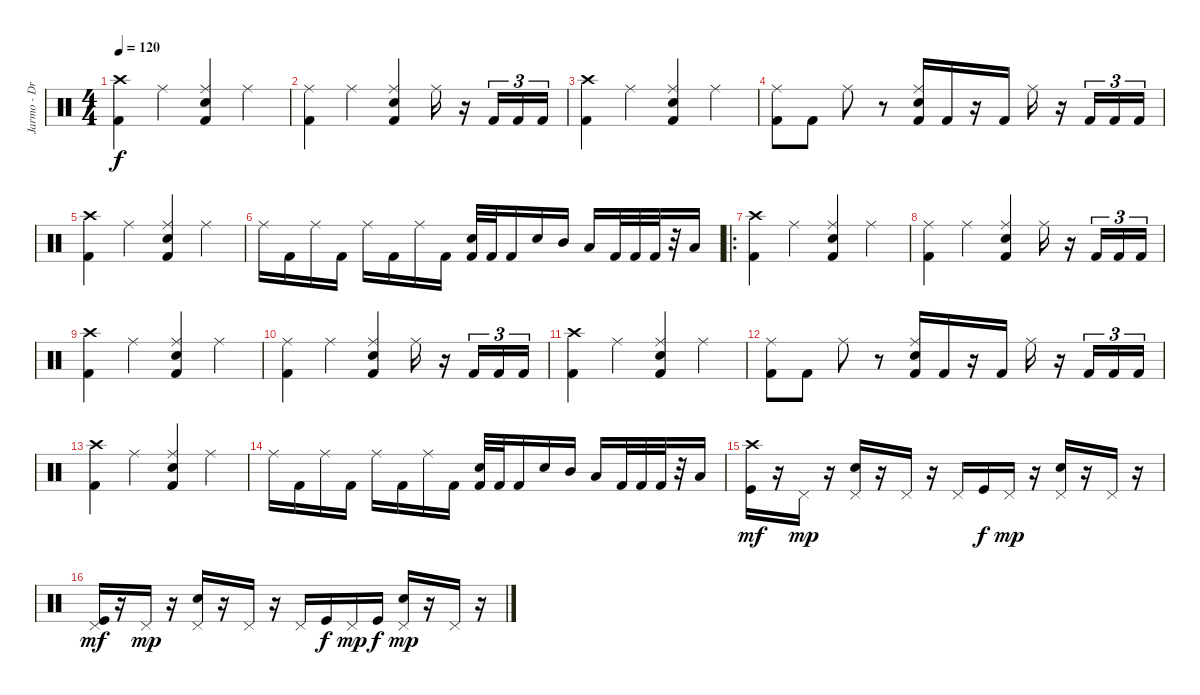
\track ("Jarmo - Drums" "Jarmo - Dr") {instrument percussion}
\staff {score}
\articulation defaults
\ts (4 4)
\tempo 120
\clef neutral
\ks c
("Kick (hit) 2" "Crash high (hit)").4{dy f} "Ride (middle)".4 ("Kick (hit) 2" "Electric Snare (hit)" "Ride (middle)").4 "Ride (middle)".4 |
("Kick (hit) 2" "Ride (middle)").4 "Ride (middle)".4 ("Kick (hit) 2" "Electric Snare (hit)" "Ride (middle)").4 "Ride (middle)".16 r.16 "Kick (hit) 2".16{tu (3 2)} "Kick (hit) 2".16{tu (3 2)} "Kick (hit) 2".16{tu (3 2)} |
("Kick (hit) 2" "Crash high (hit)").4 "Ride (middle)".4 ("Kick (hit) 2" "Electric Snare (hit)" "Ride (middle)").4 "Ride (middle)".4 |
("Kick (hit) 2" "Ride (middle)").8 "Kick (hit) 2".8 "Ride (middle)".8 r.8 ("Kick (hit) 2" "Electric Snare (hit)" "Ride (middle)").16 "Kick (hit) 2".16 r.16 "Kick (hit) 2".16 "Ride (middle)".16 r.16 "Kick (hit) 2".16{tu (3 2)} "Kick (hit) 2".16{tu (3 2)} "Kick (hit) 2".16{tu (3 2)} |
("Kick (hit) 2" "Crash high (hit)").4 "Ride (middle)".4 ("Kick (hit) 2" "Electric Snare (hit)" "Ride (middle)").4 "Ride (middle)".4 |
"Ride (middle)".16 "Kick (hit) 2".16 "Ride (middle)".16 "Kick (hit) 2".16 "Ride (middle)".16 "Kick (hit) 2".16 "Ride (middle)".16 "Kick (hit) 2".16 ("Kick (hit) 2" "Electric Snare (hit)").32 "Kick (hit) 2".32 "Kick (hit) 2".16 "Electric Snare (hit)".16 "Mid Tom (hit)".16 "Low Tom (hit)".16 "Kick (hit) 2".32 "Kick (hit) 2".32 "Kick (hit) 2".32 r.32 "Low Tom (hit)".16 |
\ro
("Kick (hit) 2" "Crash high (hit)").4 "Ride (middle)".4 ("Kick (hit) 2" "Electric Snare (hit)" "Ride (middle)").4 "Ride (middle)".4 |
("Kick (hit) 2" "Ride (middle)").4 "Ride (middle)".4 ("Kick (hit) 2" "Electric Snare (hit)" "Ride (middle)").4 "Ride (middle)".16 r.16 "Kick (hit) 2".16{tu (3 2)} "Kick (hit) 2".16{tu (3 2)} "Kick (hit) 2".16{tu (3 2)} |
("Kick (hit) 2" "Crash high (hit)").4 "Ride (middle)".4 ("Kick (hit) 2" "Electric Snare (hit)" "Ride (middle)").4 "Ride (middle)".4 |
("Kick (hit) 2" "Ride (middle)").4 "Ride (middle)".4 ("Kick (hit) 2" "Electric Snare (hit)" "Ride (middle)").4 "Ride (middle)".16 r.16 "Kick (hit) 2".16{tu (3 2)} "Kick (hit) 2".16{tu (3 2)} "Kick (hit) 2".16{tu (3 2)} |
("Kick (hit) 2" "Crash high (hit)").4 "Ride (middle)".4 ("Kick (hit) 2" "Electric Snare (hit)" "Ride (middle)").4 "Ride (middle)".4 |
("Kick (hit) 2" "Ride (middle)").8 "Kick (hit) 2".8 "Ride (middle)".8 r.8 ("Kick (hit) 2" "Electric Snare (hit)" "Ride (middle)").16 "Kick (hit) 2".16 r.16 "Kick (hit) 2".16 "Ride (middle)".16 r.16 "Kick (hit) 2".16{tu (3 2)} "Kick (hit) 2".16{tu (3 2)} "Kick (hit) 2".16{tu (3 2)} |
("Kick (hit) 2" "Crash high (hit)").4 "Ride (middle)".4 ("Kick (hit) 2" "Electric Snare (hit)" "Ride (middle)").4 "Ride (middle)".4 |
"Ride (middle)".16 "Kick (hit) 2".16 "Ride (middle)".16 "Kick (hit) 2".16 "Ride (middle)".16 "Kick (hit) 2".16 "Ride (middle)".16 "Kick (hit) 2".16 ("Kick (hit) 2" "Electric Snare (hit)").32 "Kick (hit) 2".32 "Kick (hit) 2".16 "Electric Snare (hit)".16 "Mid Tom (hit)".16 "Low Tom (hit)".16 "Kick (hit) 2".32 "Kick (hit) 2".32 "Kick (hit) 2".32 r.32 "Low Tom (hit)".16 |
("Kick (hit)" "Crash high (hit)").16{dy mf} r.16 "Pedal Hi-Hat (hit)".16{dy mp} r.16 ("Electric Snare (hit)" "Pedal Hi-Hat (hit)").16 r.16 "Pedal Hi-Hat (hit)".16 r.16 "Pedal Hi-Hat (hit)".16 "Kick (hit)".16{dy f} "Pedal Hi-Hat (hit)".16{dy mp} r.16 ("Electric Snare (hit)" "Pedal Hi-Hat (hit)").16 r.16 "Pedal Hi-Hat (hit)".16 r.16 |
("Kick (hit)" "Pedal Hi-Hat (hit)").16{dy mf} r.16 "Pedal Hi-Hat (hit)".16{dy mp} r.16 ("Electric Snare (hit)" "Pedal Hi-Hat (hit)").16 r.16 "Pedal Hi-Hat (hit)".16 r.16 "Pedal Hi-Hat (hit)".16 "Kick (hit)".16{dy f} "Pedal Hi-Hat (hit)".16{dy mp} "Kick (hit)".16{dy f} ("Electric Snare (hit)" "Pedal Hi-Hat (hit)").16{dy mp} r.16 "Pedal Hi-Hat (hit)".16 r.16
